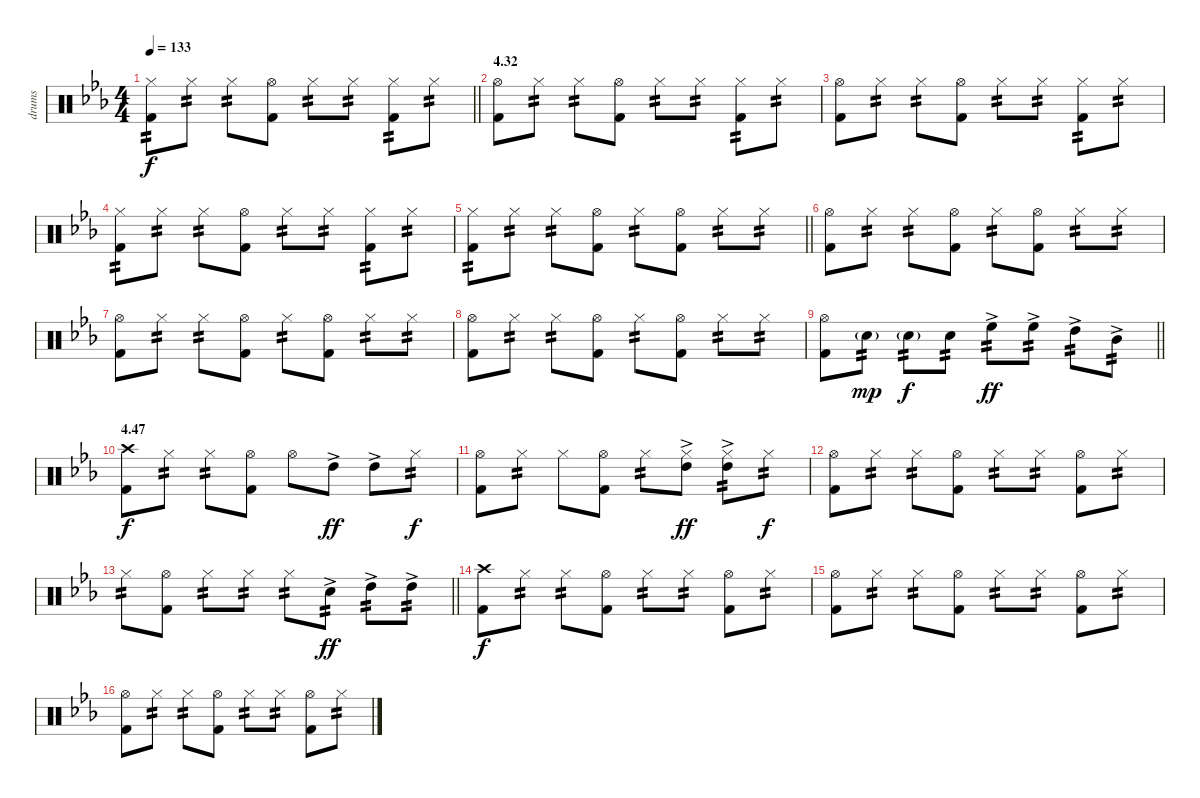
\track ("drums" "drums") {instrument percussion}
\staff {score}
\articulation defaults
\ts (4 4)
\tempo 133
\clef neutral
\barLineRight lightlight
\ks eb
("Hi-Hat (closed)" "Kick (hit) 2").8{tp 2 dy f} "Hi-Hat (closed)".8{tp 2} "Hi-Hat (closed)".8{tp 2} ("Hi-Hat (open)" "Kick (hit) 2").8 "Hi-Hat (closed)".8{tp 2} "Hi-Hat (closed)".8{tp 2} ("Hi-Hat (closed)" "Kick (hit) 2").8{tp 2} "Hi-Hat (closed)".8{tp 2} |
\section ("" "4.32")
("Hi-Hat (open)" "Kick (hit) 2").8 "Hi-Hat (closed)".8{tp 2} "Hi-Hat (closed)".8{tp 2} ("Hi-Hat (open)" "Kick (hit) 2").8 "Hi-Hat (closed)".8{tp 2} "Hi-Hat (closed)".8{tp 2} ("Hi-Hat (closed)" "Kick (hit) 2").8{tp 2} "Hi-Hat (closed)".8{tp 2} |
("Hi-Hat (open)" "Kick (hit) 2").8 "Hi-Hat (closed)".8{tp 2} "Hi-Hat (closed)".8{tp 2} ("Hi-Hat (open)" "Kick (hit) 2").8 "Hi-Hat (closed)".8{tp 2} "Hi-Hat (closed)".8{tp 2} ("Hi-Hat (closed)" "Kick (hit) 2").8{tp 2} "Hi-Hat (closed)".8{tp 2} |
("Hi-Hat (closed)" "Kick (hit) 2").8{tp 2} "Hi-Hat (closed)".8{tp 2} "Hi-Hat (closed)".8{tp 2} ("Hi-Hat (open)" "Kick (hit) 2").8 "Hi-Hat (closed)".8{tp 2} "Hi-Hat (closed)".8{tp 2} ("Hi-Hat (closed)" "Kick (hit) 2").8{tp 2} "Hi-Hat (closed)".8{tp 2} |
\barLineRight lightlight
("Hi-Hat (closed)" "Kick (hit) 2").8{tp 2} "Hi-Hat (closed)".8{tp 2} "Hi-Hat (closed)".8{tp 2} ("Hi-Hat (open)" "Kick (hit) 2").8 "Hi-Hat (closed)".8{tp 2} ("Hi-Hat (open)" "Kick (hit) 2").8 "Hi-Hat (closed)".8{tp 2} "Hi-Hat (closed)".8{tp 2} |
("Hi-Hat (open)" "Kick (hit) 2").8 "Hi-Hat (closed)".8{tp 2} "Hi-Hat (closed)".8{tp 2} ("Hi-Hat (open)" "Kick (hit) 2").8 "Hi-Hat (closed)".8{tp 2} ("Hi-Hat (open)" "Kick (hit) 2").8 "Hi-Hat (closed)".8{tp 2} "Hi-Hat (closed)".8{tp 2} |
("Hi-Hat (open)" "Kick (hit) 2").8 "Hi-Hat (closed)".8{tp 2} "Hi-Hat (closed)".8{tp 2} ("Hi-Hat (open)" "Kick (hit) 2").8 "Hi-Hat (closed)".8{tp 2} ("Hi-Hat (open)" "Kick (hit) 2").8 "Hi-Hat (closed)".8{tp 2} "Hi-Hat (closed)".8{tp 2} |
("Hi-Hat (open)" "Kick (hit) 2").8 "Hi-Hat (closed)".8{tp 2} "Hi-Hat (closed)".8{tp 2} ("Hi-Hat (open)" "Kick (hit) 2").8 "Hi-Hat (closed)".8{tp 2} ("Hi-Hat (open)" "Kick (hit) 2").8 "Hi-Hat (closed)".8{tp 2} "Hi-Hat (closed)".8{tp 2} |
\barLineRight lightlight
("Hi-Hat (open)" "Kick (hit) 2").8 "Electric Snare (hit)"{g}.8{tp 2 dy mp} "Electric Snare (hit)"{g}.8{tp 2 dy f} "Electric Snare (hit)".8{tp 2} "High Floor Tom (hit)"{ac}.8{tp 2 dy ff} "High Floor Tom (hit)"{ac}.8{tp 2} "High Tom (hit)"{ac}.8{tp 2} "Mid Tom (hit)"{ac}.8{tp 2} |
\section ("" "4.47")
("Crash high (hit)" "Kick (hit) 2").8{dy f} "Hi-Hat (closed)".8{tp 2} "Hi-Hat (closed)".8{tp 2} ("Hi-Hat (open)" "Kick (hit) 2").8 "Hi-Hat (open)".8 "High Tom (hit)"{ac}.8{dy ff} "High Tom (hit)"{ac}.8 "Hi-Hat (closed)".8{tp 2 dy f} |
("Hi-Hat (open)" "Kick (hit) 2").8 "Hi-Hat (closed)".8{tp 2} "Hi-Hat (closed)".8 ("Hi-Hat (open)" "Kick (hit) 2").8 "Hi-Hat (closed)".8{tp 2} ("Hi-Hat (closed)" "High Tom (hit)"{ac}).8{dy ff} ("Hi-Hat (closed)" "High Tom (hit)"{ac}).8{tp 2} "Hi-Hat (closed)".8{tp 2 dy f} |
("Hi-Hat (open)" "Kick (hit) 2").8 "Hi-Hat (closed)".8{tp 2} "Hi-Hat (closed)".8{tp 2} ("Hi-Hat (open)" "Kick (hit) 2").8 "Hi-Hat (closed)".8{tp 2} "Hi-Hat (closed)".8{tp 2} ("Hi-Hat (open)" "Kick (hit) 2").8 "Hi-Hat (closed)".8{tp 2} |
\barLineRight lightlight "Hi-Hat (closed)".8{tp 2}
("Hi-Hat (open)" "Kick (hit) 2").8 "Hi-Hat (closed)".8{tp 2} "Hi-Hat (closed)".8{tp 2} "Hi-Hat (closed)".8{tp 2} "Electric Snare (hit)"{ac}.8{tp 2 dy ff} "High Tom (hit)"{ac}.8{tp 2} "High Tom (hit)"{ac}.8{tp 2} |
("Crash high (hit)" "Kick (hit) 2").8{dy f} "Hi-Hat (closed)".8{tp 2} "Hi-Hat (closed)".8{tp 2} ("Hi-Hat (open)" "Kick (hit) 2").8 "Hi-Hat (closed)".8{tp 2} "Hi-Hat (closed)".8{tp 2} ("Hi-Hat (open)" "Kick (hit) 2").8 "Hi-Hat (closed)".8{tp 2} |
("Hi-Hat (open)" "Kick (hit) 2").8 "Hi-Hat (closed)".8{tp 2} "Hi-Hat (closed)".8{tp 2} ("Hi-Hat (open)" "Kick (hit) 2").8 "Hi-Hat (closed)".8{tp 2} "Hi-Hat (closed)".8{tp 2} ("Hi-Hat (open)" "Kick (hit) 2").8 "Hi-Hat (closed)".8{tp 2} |
("Hi-Hat (open)" "Kick (hit) 2").8 "Hi-Hat (closed)".8{tp 2} "Hi-Hat (closed)".8{tp 2} ("Hi-Hat (open)" "Kick (hit) 2").8 "Hi-Hat (closed)".8{tp 2} "Hi-Hat (closed)".8{tp 2} ("Hi-Hat (open)" "Kick (hit) 2").8 "Hi-Hat (closed)".8{tp 2}
